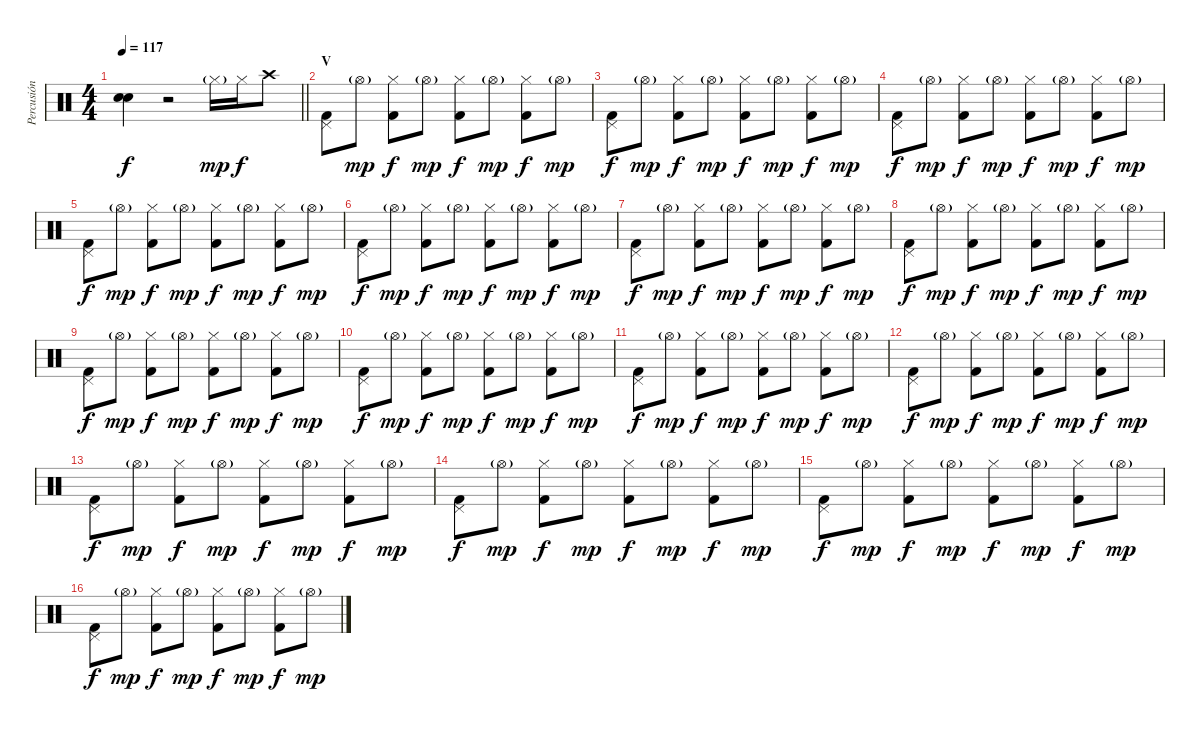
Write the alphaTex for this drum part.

\track ("Percusión" "Percusión") {instrument percussion}
\staff {score}
\articulation defaults
\ts (4 4)
\tempo 117
\clef neutral
\barLineRight lightlight
\ks c
("Snare (hit)"{t} "Snare (hit)"{t}).4{dy f} r.2{volume 9} "Hi-Hat (closed)"{g}.16{dy mp} "Hi-Hat (closed)".16{dy f} "Crash high (hit)".8 |
\section ("" "V")
("Pedal Hi-Hat (hit)" "Kick (hit) 2").8 "Hi-Hat (open)"{g}.8{dy mp} ("Hi-Hat (closed)" "Kick (hit) 2").8{dy f} "Hi-Hat (open)"{g}.8{dy mp} ("Hi-Hat (closed)" "Kick (hit) 2").8{dy f} "Hi-Hat (open)"{g}.8{dy mp} ("Hi-Hat (closed)" "Kick (hit) 2").8{dy f} "Hi-Hat (open)"{g}.8{dy mp} |
("Pedal Hi-Hat (hit)" "Kick (hit) 2").8{dy f} "Hi-Hat (open)"{g}.8{dy mp} ("Hi-Hat (closed)" "Kick (hit) 2").8{dy f} "Hi-Hat (open)"{g}.8{dy mp} ("Hi-Hat (closed)" "Kick (hit) 2").8{dy f} "Hi-Hat (open)"{g}.8{dy mp} ("Hi-Hat (closed)" "Kick (hit) 2").8{dy f} "Hi-Hat (open)"{g}.8{dy mp} |
("Pedal Hi-Hat (hit)" "Kick (hit) 2").8{dy f} "Hi-Hat (open)"{g}.8{dy mp} ("Hi-Hat (closed)" "Kick (hit) 2").8{dy f} "Hi-Hat (open)"{g}.8{dy mp} ("Hi-Hat (closed)" "Kick (hit) 2").8{dy f} "Hi-Hat (open)"{g}.8{dy mp} ("Hi-Hat (closed)" "Kick (hit) 2").8{dy f} "Hi-Hat (open)"{g}.8{dy mp} |
("Pedal Hi-Hat (hit)" "Kick (hit) 2").8{dy f} "Hi-Hat (open)"{g}.8{dy mp} ("Hi-Hat (closed)" "Kick (hit) 2").8{dy f} "Hi-Hat (open)"{g}.8{dy mp} ("Hi-Hat (closed)" "Kick (hit) 2").8{dy f} "Hi-Hat (open)"{g}.8{dy mp} ("Hi-Hat (closed)" "Kick (hit) 2").8{dy f} "Hi-Hat (open)"{g}.8{dy mp} |
("Pedal Hi-Hat (hit)" "Kick (hit) 2").8{dy f} "Hi-Hat (open)"{g}.8{dy mp} ("Hi-Hat (closed)" "Kick (hit) 2").8{dy f} "Hi-Hat (open)"{g}.8{dy mp} ("Hi-Hat (closed)" "Kick (hit) 2").8{dy f} "Hi-Hat (open)"{g}.8{dy mp} ("Hi-Hat (closed)" "Kick (hit) 2").8{dy f} "Hi-Hat (open)"{g}.8{dy mp} |
("Pedal Hi-Hat (hit)" "Kick (hit) 2").8{dy f} "Hi-Hat (open)"{g}.8{dy mp} ("Hi-Hat (closed)" "Kick (hit) 2").8{dy f} "Hi-Hat (open)"{g}.8{dy mp} ("Hi-Hat (closed)" "Kick (hit) 2").8{dy f} "Hi-Hat (open)"{g}.8{dy mp} ("Hi-Hat (closed)" "Kick (hit) 2").8{dy f} "Hi-Hat (open)"{g}.8{dy mp} |
("Pedal Hi-Hat (hit)" "Kick (hit) 2").8{dy f} "Hi-Hat (open)"{g}.8{dy mp} ("Hi-Hat (closed)" "Kick (hit) 2").8{dy f} "Hi-Hat (open)"{g}.8{dy mp} ("Hi-Hat (closed)" "Kick (hit) 2").8{dy f} "Hi-Hat (open)"{g}.8{dy mp} ("Hi-Hat (closed)" "Kick (hit) 2").8{dy f} "Hi-Hat (open)"{g}.8{dy mp} |
("Pedal Hi-Hat (hit)" "Kick (hit) 2").8{dy f} "Hi-Hat (open)"{g}.8{dy mp} ("Hi-Hat (closed)" "Kick (hit) 2").8{dy f} "Hi-Hat (open)"{g}.8{dy mp} ("Hi-Hat (closed)" "Kick (hit) 2").8{dy f} "Hi-Hat (open)"{g}.8{dy mp} ("Hi-Hat (closed)" "Kick (hit) 2").8{dy f} "Hi-Hat (open)"{g}.8{dy mp} |
("Pedal Hi-Hat (hit)" "Kick (hit) 2").8{dy f} "Hi-Hat (open)"{g}.8{dy mp} ("Hi-Hat (closed)" "Kick (hit) 2").8{dy f} "Hi-Hat (open)"{g}.8{dy mp} ("Hi-Hat (closed)" "Kick (hit) 2").8{dy f} "Hi-Hat (open)"{g}.8{dy mp} ("Hi-Hat (closed)" "Kick (hit) 2").8{dy f} "Hi-Hat (open)"{g}.8{dy mp} |
("Pedal Hi-Hat (hit)" "Kick (hit) 2").8{dy f} "Hi-Hat (open)"{g}.8{dy mp} ("Hi-Hat (closed)" "Kick (hit) 2").8{dy f} "Hi-Hat (open)"{g}.8{dy mp} ("Hi-Hat (closed)" "Kick (hit) 2").8{dy f} "Hi-Hat (open)"{g}.8{dy mp} ("Hi-Hat (closed)" "Kick (hit) 2").8{dy f} "Hi-Hat (open)"{g}.8{dy mp} |
("Pedal Hi-Hat (hit)" "Kick (hit) 2").8{dy f} "Hi-Hat (open)"{g}.8{dy mp} ("Hi-Hat (closed)" "Kick (hit) 2").8{dy f} "Hi-Hat (open)"{g}.8{dy mp} ("Hi-Hat (closed)" "Kick (hit) 2").8{dy f} "Hi-Hat (open)"{g}.8{dy mp} ("Hi-Hat (closed)" "Kick (hit) 2").8{dy f} "Hi-Hat (open)"{g}.8{dy mp} |
("Pedal Hi-Hat (hit)" "Kick (hit) 2").8{dy f} "Hi-Hat (open)"{g}.8{dy mp} ("Hi-Hat (closed)" "Kick (hit) 2").8{dy f} "Hi-Hat (open)"{g}.8{dy mp} ("Hi-Hat (closed)" "Kick (hit) 2").8{dy f} "Hi-Hat (open)"{g}.8{dy mp} ("Hi-Hat (closed)" "Kick (hit) 2").8{dy f} "Hi-Hat (open)"{g}.8{dy mp} |
("Pedal Hi-Hat (hit)" "Kick (hit) 2").8{dy f} "Hi-Hat (open)"{g}.8{dy mp} ("Hi-Hat (closed)" "Kick (hit) 2").8{dy f} "Hi-Hat (open)"{g}.8{dy mp} ("Hi-Hat (closed)" "Kick (hit) 2").8{dy f} "Hi-Hat (open)"{g}.8{dy mp} ("Hi-Hat (closed)" "Kick (hit) 2").8{dy f} "Hi-Hat (open)"{g}.8{dy mp} |
("Pedal Hi-Hat (hit)" "Kick (hit) 2").8{dy f} "Hi-Hat (open)"{g}.8{dy mp} ("Hi-Hat (closed)" "Kick (hit) 2").8{dy f} "Hi-Hat (open)"{g}.8{dy mp} ("Hi-Hat (closed)" "Kick (hit) 2").8{dy f} "Hi-Hat (open)"{g}.8{dy mp} ("Hi-Hat (closed)" "Kick (hit) 2").8{dy f} "Hi-Hat (open)"{g}.8{dy mp} |
("Pedal Hi-Hat (hit)" "Kick (hit) 2").8{dy f} "Hi-Hat (open)"{g}.8{dy mp} ("Hi-Hat (closed)" "Kick (hit) 2").8{dy f} "Hi-Hat (open)"{g}.8{dy mp} ("Hi-Hat (closed)" "Kick (hit) 2").8{dy f} "Hi-Hat (open)"{g}.8{dy mp} ("Hi-Hat (closed)" "Kick (hit) 2").8{dy f} "Hi-Hat (open)"{g}.8{dy mp}
